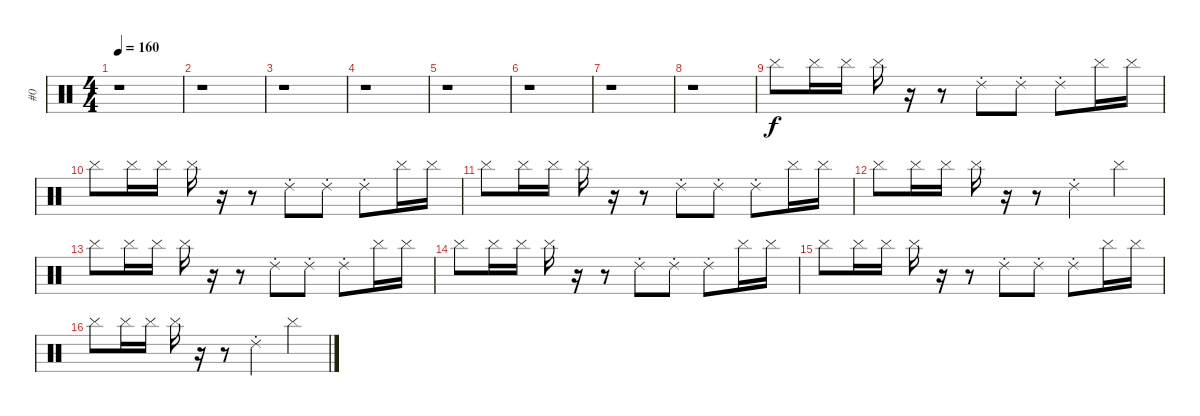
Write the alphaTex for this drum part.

\track ("#0" "#0") {instrument percussion}
\staff {score}
\articulation defaults
\ts (4 4)
\tempo 160
\clef neutral
\ks c
r.1{dy f} |
r.1 |
r.1 |
r.1 |
r.1 |
r.1 |
r.1 |
r.1 |
"Cymbal (hit)".8 "Cymbal (hit)".16 "Cymbal (hit)".16 "Cymbal (hit)".16 r.16 r.8 "Ride (choke) 2".8 "Ride (choke) 2".8 "Ride (choke) 2".8 "Cymbal (hit)".16 "Cymbal (hit)".16 |
"Cymbal (hit)".8 "Cymbal (hit)".16 "Cymbal (hit)".16 "Cymbal (hit)".16 r.16 r.8 "Ride (choke) 2".8 "Ride (choke) 2".8 "Ride (choke) 2".8 "Cymbal (hit)".16 "Cymbal (hit)".16 |
"Cymbal (hit)".8 "Cymbal (hit)".16 "Cymbal (hit)".16 "Cymbal (hit)".16 r.16 r.8 "Ride (choke) 2".8 "Ride (choke) 2".8 "Ride (choke) 2".8 "Cymbal (hit)".16 "Cymbal (hit)".16 |
"Cymbal (hit)".8 "Cymbal (hit)".16 "Cymbal (hit)".16 "Cymbal (hit)".16 r.16 r.8 "Ride (choke) 2".4 "Cymbal (hit)".4 |
"Cymbal (hit)".8 "Cymbal (hit)".16 "Cymbal (hit)".16 "Cymbal (hit)".16 r.16 r.8 "Ride (choke) 2".8 "Ride (choke) 2".8 "Ride (choke) 2".8 "Cymbal (hit)".16 "Cymbal (hit)".16 |
"Cymbal (hit)".8 "Cymbal (hit)".16 "Cymbal (hit)".16 "Cymbal (hit)".16 r.16 r.8 "Ride (choke) 2".8 "Ride (choke) 2".8 "Ride (choke) 2".8 "Cymbal (hit)".16 "Cymbal (hit)".16 |
"Cymbal (hit)".8 "Cymbal (hit)".16 "Cymbal (hit)".16 "Cymbal (hit)".16 r.16 r.8 "Ride (choke) 2".8 "Ride (choke) 2".8 "Ride (choke) 2".8 "Cymbal (hit)".16 "Cymbal (hit)".16 |
"Cymbal (hit)".8 "Cymbal (hit)".16 "Cymbal (hit)".16 "Cymbal (hit)".16 r.16 r.8 "Ride (choke) 2".4 "Cymbal (hit)".4
